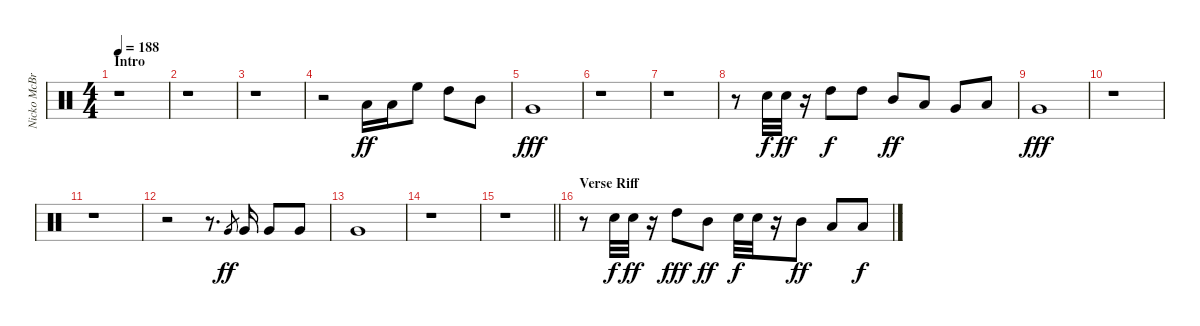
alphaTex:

\track ("Nicko McBrain" "Nicko McBr") {instrument percussion}
\staff {score}
\articulation defaults
\ts (4 4)
\section ("" "Intro")
\tempo 188
\clef neutral
\ks c
r.1{dy ff} |
r.1 |
r.1 |
r.2 "Low Tom (hit)".16 "Low Tom (hit)".16 "High Floor Tom (hit)".8 "High Tom (hit)".8 "Mid Tom (hit)".8 |
"Very Low Tom (hit)".1{dy fff} |
r.1 |
r.1 |
r.8 "Electric Snare (hit)".32{dy f} "Electric Snare (hit)".32{dy ff} r.16 "High Tom (hit)".8{dy f} "High Tom (hit)".8 "Mid Tom (hit)".8{dy ff} "Low Tom (hit)".8 "Very Low Tom (hit)".8 "Low Floor Tom (hit)".8 |
"Very Low Tom (hit)".1{dy fff} |
r.1 |
r.1 |
r.2 r.8{d} "Very Low Tom (hit)".8{gr dy ff} "Very Low Tom (hit)".16 "Very Low Tom (hit)".8 "Very Low Tom (hit)".8 |
"Very Low Tom (hit)".1 |
r.1 |
\barLineRight lightlight
r.1 |
\section ("" "Verse Riff")
r.8 "Electric Snare (hit)".32{dy f} "Electric Snare (hit)".32{dy ff} r.16 "High Tom (hit)".8{dy fff} "Mid Tom (hit)".8{dy ff} "Electric Snare (hit)".32{dy f} "Electric Snare (hit)".32 r.16 "Mid Tom (hit)".8{dy ff} "Low Tom (hit)".8 "Low Tom (hit)".8{dy f}
